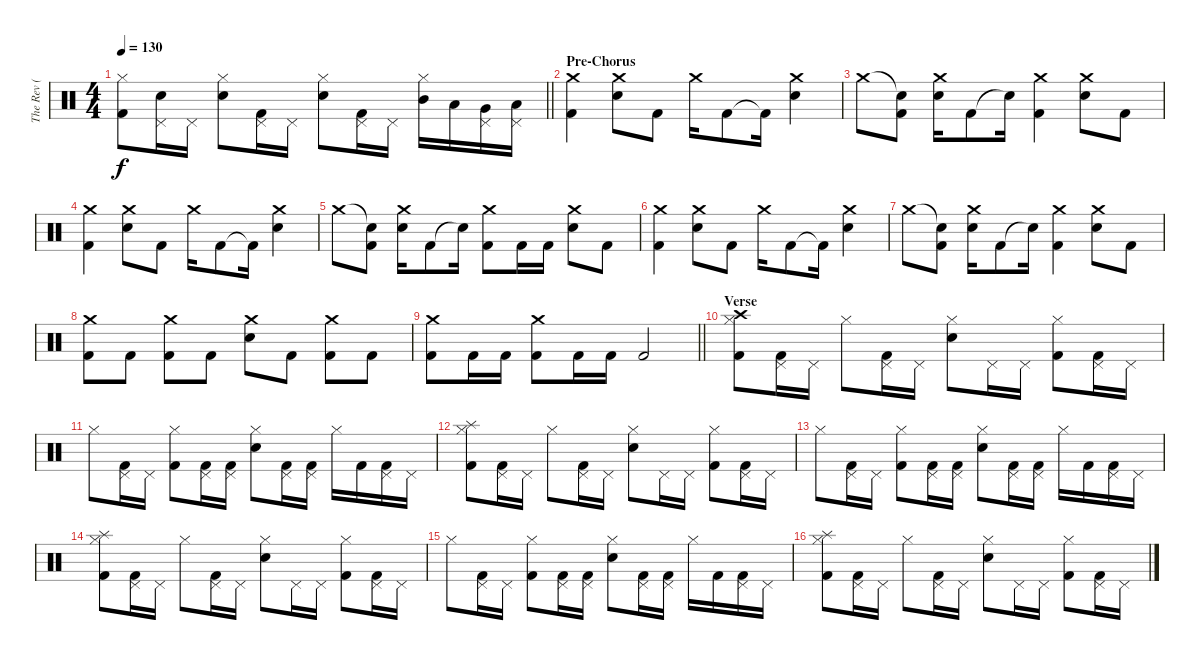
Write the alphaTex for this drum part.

\track ("The Rev ( Drums )" "The Rev ( ") {instrument percussion}
\staff {score}
\articulation defaults
\ts (4 4)
\tempo 130
\clef neutral
\barLineRight lightlight
\ks c
("Hi-Hat (closed)" "Kick (hit) 2").8{dy f} ("Pedal Hi-Hat (hit)" "Snare (hit) 2").16 "Pedal Hi-Hat (hit)".16 ("Hi-Hat (closed)" "Snare (hit) 2").8 ("Pedal Hi-Hat (hit)" "Kick (hit) 2").16 "Pedal Hi-Hat (hit)".16 ("Hi-Hat (closed)" "Snare (hit) 2").8 ("Pedal Hi-Hat (hit)" "Kick (hit) 2").16 "Pedal Hi-Hat (hit)".16 ("Hi-Hat (closed)" "Mid Tom (hit)").16 "Low Tom (hit)".16 ("Pedal Hi-Hat (hit)" "Very Low Tom (hit)").16 ("Pedal Hi-Hat (hit)" "Low Floor Tom (hit)").16 |
\section ("" "Pre-Chorus")
("Crash medium (hit)" "Kick (hit) 2").4 ("Crash medium (hit)" "Snare (hit) 2").8 "Kick (hit) 2".8 "Crash medium (hit)".16 "Kick (hit) 2".8 "Kick (hit) 2"{t}.16 ("Crash medium (hit)" "Snare (hit) 2").4 |
"Crash medium (hit)".8 ("Snare (hit)"{t} "Kick (hit) 2").8 ("Crash medium (hit)" "Snare (hit) 2").16 "Kick (hit) 2".8 "Snare (hit)"{t}.16 ("Crash medium (hit)" "Kick (hit) 2").4 ("Crash medium (hit)" "Snare (hit) 2").8 "Kick (hit) 2".8 |
("Crash medium (hit)" "Kick (hit) 2").4 ("Crash medium (hit)" "Snare (hit) 2").8 "Kick (hit) 2".8 "Crash medium (hit)".16 "Kick (hit) 2".8 "Kick (hit) 2"{t}.16 ("Crash medium (hit)" "Snare (hit) 2").4 |
"Crash medium (hit)".8 ("Snare (hit)"{t} "Kick (hit) 2").8 ("Crash medium (hit)" "Snare (hit) 2").16 "Kick (hit) 2".8 "Snare (hit)"{t}.16 ("Crash medium (hit)" "Kick (hit) 2").8 "Kick (hit) 2".16 "Kick (hit) 2".16 ("Crash medium (hit)" "Snare (hit) 2").8 "Kick (hit) 2".8 |
("Crash medium (hit)" "Kick (hit) 2").4 ("Crash medium (hit)" "Snare (hit) 2").8 "Kick (hit) 2".8 "Crash medium (hit)".16 "Kick (hit) 2".8 "Kick (hit) 2"{t}.16 ("Crash medium (hit)" "Snare (hit) 2").4 |
"Crash medium (hit)".8 ("Snare (hit)"{t} "Kick (hit) 2").8 ("Crash medium (hit)" "Snare (hit) 2").16 "Kick (hit) 2".8 "Snare (hit)"{t}.16 ("Crash medium (hit)" "Kick (hit) 2").4 ("Crash medium (hit)" "Snare (hit) 2").8 "Kick (hit) 2".8 |
("Crash medium (hit)" "Kick (hit) 2").8 "Kick (hit) 2".8 ("Crash medium (hit)" "Kick (hit) 2").8 "Kick (hit) 2".8 ("Crash medium (hit)" "Snare (hit) 2").8 "Kick (hit) 2".8 ("Crash medium (hit)" "Kick (hit) 2").8 "Kick (hit) 2".8 |
\barLineRight lightlight
("Crash medium (hit)" "Kick (hit) 2").8 "Kick (hit) 2".16 "Kick (hit) 2".16 ("Crash medium (hit)" "Kick (hit) 2").8 "Kick (hit) 2".16 "Kick (hit) 2".16 "Kick (hit) 2".2 |
\section ("" "Verse")
("Crash high (hit)" "Hi-Hat (closed)" "Kick (hit) 2").8 ("Pedal Hi-Hat (hit)" "Kick (hit) 2").16 "Pedal Hi-Hat (hit)".16 "Hi-Hat (closed)".8 ("Pedal Hi-Hat (hit)" "Kick (hit) 2").16 "Pedal Hi-Hat (hit)".16 ("Hi-Hat (closed)" "Snare (hit) 2").8 "Pedal Hi-Hat (hit)".16 "Pedal Hi-Hat (hit)".16 ("Hi-Hat (closed)" "Kick (hit) 2").8 ("Pedal Hi-Hat (hit)" "Kick (hit) 2").16 "Pedal Hi-Hat (hit)".16 |
"Hi-Hat (closed)".8 ("Pedal Hi-Hat (hit)" "Kick (hit) 2").16 "Pedal Hi-Hat (hit)".16 ("Hi-Hat (closed)" "Kick (hit) 2").8 ("Pedal Hi-Hat (hit)" "Kick (hit) 2").16 ("Pedal Hi-Hat (hit)" "Kick (hit) 2").16 ("Hi-Hat (closed)" "Snare (hit) 2").8 ("Pedal Hi-Hat (hit)" "Kick (hit) 2").16 ("Pedal Hi-Hat (hit)" "Kick (hit) 2").16 "Hi-Hat (closed)".16 "Kick (hit) 2".16 ("Pedal Hi-Hat (hit)" "Kick (hit) 2").16 "Pedal Hi-Hat (hit)".16 |
("Splash (hit)" "Hi-Hat (closed)" "Kick (hit) 2").8 ("Pedal Hi-Hat (hit)" "Kick (hit) 2").16 "Pedal Hi-Hat (hit)".16 "Hi-Hat (closed)".8 ("Pedal Hi-Hat (hit)" "Kick (hit) 2").16 "Pedal Hi-Hat (hit)".16 ("Hi-Hat (closed)" "Snare (hit) 2").8 "Pedal Hi-Hat (hit)".16 "Pedal Hi-Hat (hit)".16 ("Hi-Hat (closed)" "Kick (hit) 2").8 ("Pedal Hi-Hat (hit)" "Kick (hit) 2").16 "Pedal Hi-Hat (hit)".16 |
"Hi-Hat (closed)".8 ("Pedal Hi-Hat (hit)" "Kick (hit) 2").16 "Pedal Hi-Hat (hit)".16 ("Hi-Hat (closed)" "Kick (hit) 2").8 ("Pedal Hi-Hat (hit)" "Kick (hit) 2").16 ("Pedal Hi-Hat (hit)" "Kick (hit) 2").16 ("Hi-Hat (closed)" "Snare (hit) 2").8 ("Pedal Hi-Hat (hit)" "Kick (hit) 2").16 ("Pedal Hi-Hat (hit)" "Kick (hit) 2").16 "Hi-Hat (closed)".16 "Kick (hit) 2".16 ("Pedal Hi-Hat (hit)" "Kick (hit) 2").16 "Pedal Hi-Hat (hit)".16 |
("Splash (hit)" "Hi-Hat (closed)" "Kick (hit) 2").8 ("Pedal Hi-Hat (hit)" "Kick (hit) 2").16 "Pedal Hi-Hat (hit)".16 "Hi-Hat (closed)".8 ("Pedal Hi-Hat (hit)" "Kick (hit) 2").16 "Pedal Hi-Hat (hit)".16 ("Hi-Hat (closed)" "Snare (hit) 2").8 "Pedal Hi-Hat (hit)".16 "Pedal Hi-Hat (hit)".16 ("Hi-Hat (closed)" "Kick (hit) 2").8 ("Pedal Hi-Hat (hit)" "Kick (hit) 2").16 "Pedal Hi-Hat (hit)".16 |
"Hi-Hat (closed)".8 ("Pedal Hi-Hat (hit)" "Kick (hit) 2").16 "Pedal Hi-Hat (hit)".16 ("Hi-Hat (closed)" "Kick (hit) 2").8 ("Pedal Hi-Hat (hit)" "Kick (hit) 2").16 ("Pedal Hi-Hat (hit)" "Kick (hit) 2").16 ("Hi-Hat (closed)" "Snare (hit) 2").8 ("Pedal Hi-Hat (hit)" "Kick (hit) 2").16 ("Pedal Hi-Hat (hit)" "Kick (hit) 2").16 "Hi-Hat (closed)".16 "Kick (hit) 2".16 ("Pedal Hi-Hat (hit)" "Kick (hit) 2").16 "Pedal Hi-Hat (hit)".16 |
("Splash (hit)" "Hi-Hat (closed)" "Kick (hit) 2").8 ("Pedal Hi-Hat (hit)" "Kick (hit) 2").16 "Pedal Hi-Hat (hit)".16 "Hi-Hat (closed)".8 ("Pedal Hi-Hat (hit)" "Kick (hit) 2").16 "Pedal Hi-Hat (hit)".16 ("Hi-Hat (closed)" "Snare (hit) 2").8 "Pedal Hi-Hat (hit)".16 "Pedal Hi-Hat (hit)".16 ("Hi-Hat (closed)" "Kick (hit) 2").8 ("Pedal Hi-Hat (hit)" "Kick (hit) 2").16 "Pedal Hi-Hat (hit)".16
